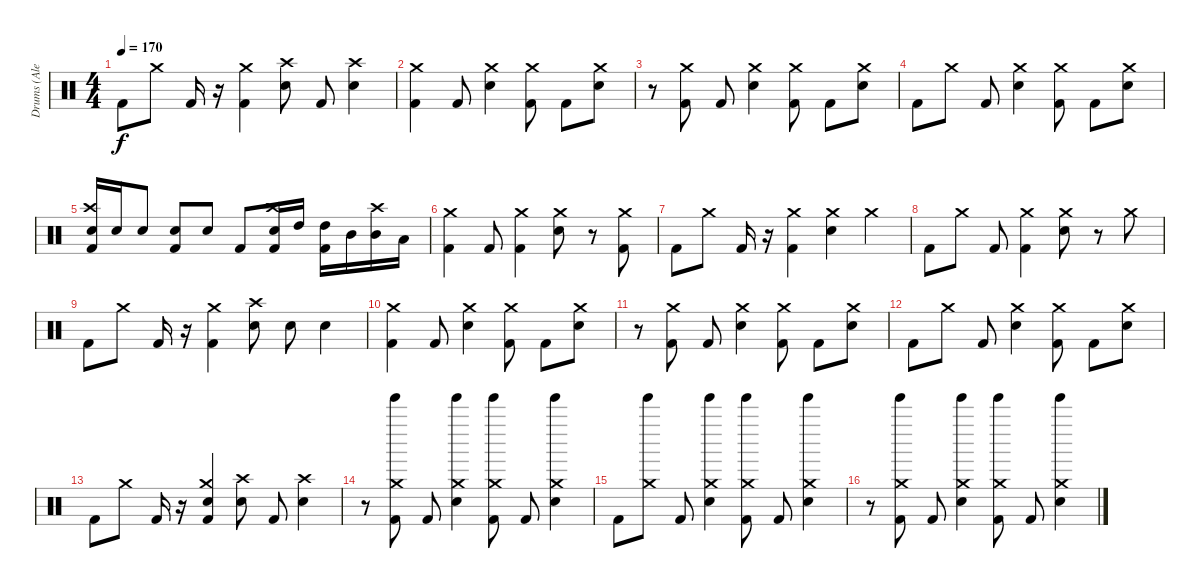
\track ("Drums (Alex Shelnutt)" "Drums (Ale") {instrument percussion}
\staff {score}
\articulation defaults
\ts (4 4)
\tempo 170
\clef neutral
\ks c "Kick (hit) 2".8{dy f} "Crash medium (hit)".8 "Kick (hit) 2".16
r.16 ("Crash medium (hit)" "Kick (hit) 2").4 ("Crash high (hit)" "Electric Snare (hit)").8 "Kick (hit) 2".8 ("Crash high (hit)" "Electric Snare (hit)").4 |
("Crash medium (hit)" "Kick (hit) 2").4 "Kick (hit) 2".8 ("Crash medium (hit)" "Electric Snare (hit)").4 ("Crash medium (hit)" "Kick (hit) 2").8 "Kick (hit) 2".8 ("Crash medium (hit)" "Electric Snare (hit)").8 |
r.8 ("Crash medium (hit)" "Kick (hit) 2").8 "Kick (hit) 2".8 ("Crash medium (hit)" "Electric Snare (hit)").4 ("Crash medium (hit)" "Kick (hit) 2").8 "Kick (hit) 2".8 ("Crash medium (hit)" "Electric Snare (hit)").8 |
"Kick (hit) 2".8 "Crash medium (hit)".8 "Kick (hit) 2".8 ("Crash medium (hit)" "Electric Snare (hit)").4 ("Crash medium (hit)" "Kick (hit) 2").8 "Kick (hit) 2".8 ("Crash medium (hit)" "Electric Snare (hit)").8 |
("Crash high (hit)" "Electric Snare (hit)" "Kick (hit) 2").16 "Electric Snare (hit)".16 "Electric Snare (hit)".8 ("Electric Snare (hit)" "Kick (hit) 2").8 "Electric Snare (hit)".8 "Kick (hit) 2".8 ("Crash high (hit)" "Electric Snare (hit)" "Kick (hit) 2").16 "High Tom (hit)".16 ("High Tom (hit)" "Kick (hit) 2").16 "Mid Tom (hit)".16 ("Crash high (hit)" "Mid Tom (hit)").16 "Low Tom (hit)".16 |
("Crash medium (hit)" "Kick (hit) 2").4 "Kick (hit) 2".8 ("Crash medium (hit)" "Kick (hit) 2").4 ("Crash medium (hit)" "Electric Snare (hit)").8 r.8 ("Crash medium (hit)" "Kick (hit) 2").8 |
"Kick (hit) 2".8 "Crash medium (hit)".8 "Kick (hit) 2".16 r.16 ("Crash medium (hit)" "Kick (hit) 2").4 ("Crash medium (hit)" "Electric Snare (hit)").4 "Crash medium (hit)".4 |
"Kick (hit) 2".8 "Crash medium (hit)".8 "Kick (hit) 2".8 ("Crash medium (hit)" "Kick (hit) 2").4 ("Crash medium (hit)" "Electric Snare (hit)").8 r.8 "Crash medium (hit)".8 |
"Kick (hit) 2".8 "Crash medium (hit)".8 "Kick (hit) 2".16 r.16 ("Crash medium (hit)" "Kick (hit) 2").4 ("Crash high (hit)" "Electric Snare (hit)").8 "Electric Snare (hit)".8 "Electric Snare (hit)".4 |
("Crash medium (hit)" "Kick (hit) 2").4 "Kick (hit) 2".8 ("Crash medium (hit)" "Electric Snare (hit)").4 ("Crash medium (hit)" "Kick (hit) 2").8 "Kick (hit) 2".8 ("Crash medium (hit)" "Electric Snare (hit)").8 |
r.8 ("Crash medium (hit)" "Kick (hit) 2").8 "Kick (hit) 2".8 ("Crash medium (hit)" "Electric Snare (hit)").4 ("Crash medium (hit)" "Kick (hit) 2").8 "Kick (hit) 2".8 ("Crash medium (hit)" "Electric Snare (hit)").8 |
"Kick (hit) 2".8 "Crash medium (hit)".8 "Kick (hit) 2".8 ("Crash medium (hit)" "Electric Snare (hit)").4 ("Crash medium (hit)" "Kick (hit) 2").8 "Kick (hit) 2".8 ("Crash medium (hit)" "Electric Snare (hit)").8 |
"Kick (hit) 2".8 "Crash medium (hit)".8 "Kick (hit) 2".16 r.16 ("Crash medium (hit)" "Electric Snare (hit)" "Kick (hit) 2").4 ("Crash high (hit)" "Electric Snare (hit)").8 "Kick (hit) 2".8 ("Crash high (hit)" "Electric Snare (hit)").4 |
r.8 ("Tinkle Bell (hit)" "Crash medium (hit)" "Kick (hit) 2").8 "Kick (hit) 2".8 ("Tinkle Bell (hit)" "Crash medium (hit)" "Electric Snare (hit)").4 ("Tinkle Bell (hit)" "Crash medium (hit)" "Kick (hit) 2").8 "Kick (hit) 2".8 ("Tinkle Bell (hit)" "Crash medium (hit)" "Electric Snare (hit)").4 |
"Kick (hit) 2".8 ("Tinkle Bell (hit)" "Crash medium (hit)").8 "Kick (hit) 2".8 ("Tinkle Bell (hit)" "Crash medium (hit)" "Electric Snare (hit)").4 ("Tinkle Bell (hit)" "Crash medium (hit)" "Kick (hit) 2").8 "Kick (hit) 2".8 ("Tinkle Bell (hit)" "Crash medium (hit)" "Electric Snare (hit)").4 |
r.8 ("Tinkle Bell (hit)" "Crash medium (hit)" "Kick (hit) 2").8 "Kick (hit) 2".8 ("Tinkle Bell (hit)" "Crash medium (hit)" "Electric Snare (hit)").4 ("Tinkle Bell (hit)" "Crash medium (hit)" "Kick (hit) 2").8 "Kick (hit) 2".8 ("Tinkle Bell (hit)" "Crash medium (hit)" "Electric Snare (hit)").4
